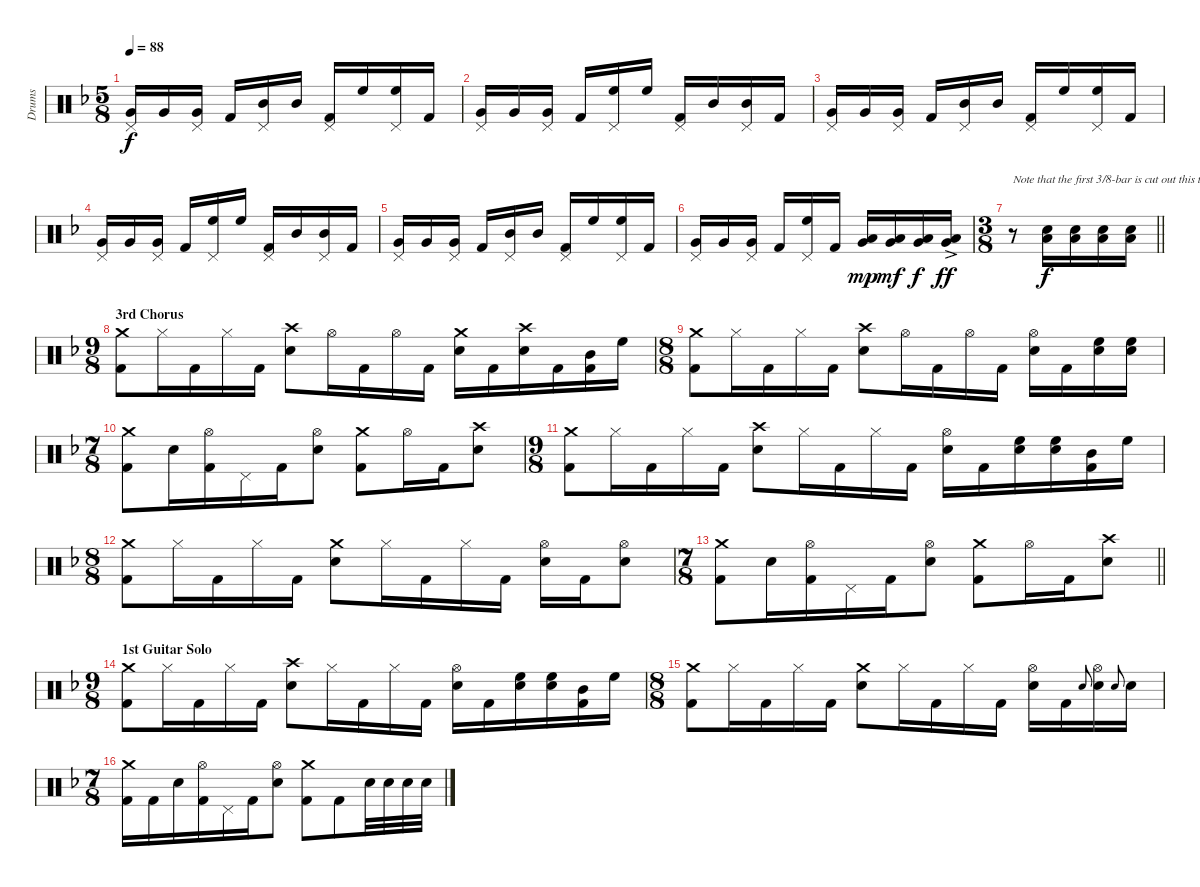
\track ("Drums" "Drums") {instrument percussion}
\staff {score}
\articulation defaults
\ts (5 8)
\tempo 88
\clef neutral
\ks dminor
("Pedal Hi-Hat (hit)" "Very Low Tom (hit)").16{dy f} "Very Low Tom (hit)".16{beam merge} ("Pedal Hi-Hat (hit)" "Very Low Tom (hit)").16{beam split} "Kick (hit) 2".16{beam merge} ("Pedal Hi-Hat (hit)" "Mid Tom (hit)").16 "Mid Tom (hit)".16{beam split} ("Pedal Hi-Hat (hit)" "Kick (hit) 2").16 "High Floor Tom (hit)".16{beam merge} ("Pedal Hi-Hat (hit)" "High Floor Tom (hit)").16 "Kick (hit) 2".16 |
("Pedal Hi-Hat (hit)" "Very Low Tom (hit)").16 "Very Low Tom (hit)".16{beam merge} ("Pedal Hi-Hat (hit)" "Very Low Tom (hit)").16{beam split} "Kick (hit) 2".16{beam merge} ("Pedal Hi-Hat (hit)" "High Floor Tom (hit)").16 "High Floor Tom (hit)".16{beam split} ("Pedal Hi-Hat (hit)" "Kick (hit) 2").16{beam merge} "Mid Tom (hit)".16{beam merge} ("Pedal Hi-Hat (hit)" "Mid Tom (hit)").16 "Kick (hit) 2".16 |
("Pedal Hi-Hat (hit)" "Very Low Tom (hit)").16 "Very Low Tom (hit)".16{beam merge} ("Pedal Hi-Hat (hit)" "Very Low Tom (hit)").16{beam split} "Kick (hit) 2".16{beam merge} ("Pedal Hi-Hat (hit)" "Mid Tom (hit)").16 "Mid Tom (hit)".16{beam split} ("Pedal Hi-Hat (hit)" "Kick (hit) 2").16 "High Floor Tom (hit)".16{beam merge} ("Pedal Hi-Hat (hit)" "High Floor Tom (hit)").16 "Kick (hit) 2".16 |
("Pedal Hi-Hat (hit)" "Very Low Tom (hit)").16 "Very Low Tom (hit)".16{beam merge} ("Pedal Hi-Hat (hit)" "Very Low Tom (hit)").16{beam split} "Kick (hit) 2".16{beam merge} ("Pedal Hi-Hat (hit)" "High Floor Tom (hit)").16 "High Floor Tom (hit)".16{beam split} ("Pedal Hi-Hat (hit)" "Kick (hit) 2").16{beam merge} "Mid Tom (hit)".16{beam merge} ("Pedal Hi-Hat (hit)" "Mid Tom (hit)").16 "Kick (hit) 2".16 |
("Pedal Hi-Hat (hit)" "Very Low Tom (hit)").16 "Very Low Tom (hit)".16{beam merge} ("Pedal Hi-Hat (hit)" "Very Low Tom (hit)").16{beam split} "Kick (hit) 2".16{beam merge} ("Pedal Hi-Hat (hit)" "Mid Tom (hit)").16 "Mid Tom (hit)".16{beam split} ("Pedal Hi-Hat (hit)" "Kick (hit) 2").16 "High Floor Tom (hit)".16{beam merge} ("Pedal Hi-Hat (hit)" "High Floor Tom (hit)").16 "Kick (hit) 2".16 |
("Pedal Hi-Hat (hit)" "Very Low Tom (hit)").16 "Very Low Tom (hit)".16{beam merge} ("Pedal Hi-Hat (hit)" "Very Low Tom (hit)").16{beam split} "Kick (hit) 2".16{beam merge} ("Pedal Hi-Hat (hit)" "High Floor Tom (hit)").16 "Kick (hit) 2".16 ("Low Tom (hit)" "Very Low Tom (hit)").16{dy mp} ("Low Tom (hit)" "Very Low Tom (hit)").16{dy mf beam merge} ("Low Tom (hit)" "Very Low Tom (hit)").16{dy f} ("Low Tom (hit)"{ac} "Very Low Tom (hit)"{ac}).16{dy ff} |
\ts (3 8)
\barLineRight lightlight
r.8{txt "Note that the first 3/8-bar is cut out this time."} ("Low Tom (hit)" "Snare (hit) 2").16{dy f} ("Low Tom (hit)" "Snare (hit) 2").16 ("Low Tom (hit)" "Snare (hit) 2").16 ("Low Tom (hit)" "Snare (hit) 2").16 |
\ts (9 8)
\section ("" "3rd Chorus")
("Crash medium (hit)" "Kick (hit) 2").8 "Hi-Hat (closed)".16 "Kick (hit) 2".16 "Hi-Hat (closed)".16 "Kick (hit) 2".16 ("Crash high (hit)" "Snare (hit) 2").8 "Hi-Hat (open)".16 "Kick (hit) 2".16 "Hi-Hat (open)".16 "Kick (hit) 2".16 ("Crash medium (hit)" "Snare (hit) 2").16 "Kick (hit) 2".16 ("Crash high (hit)" "Snare (hit) 2").16 "Kick (hit) 2".16 ("Mid Tom (hit)" "Kick (hit) 2").16 "High Floor Tom (hit)".16 |
\ts (8 8)
("Crash medium (hit)" "Kick (hit) 2").8{beam merge} "Hi-Hat (closed)".16 "Kick (hit) 2".16{beam merge} "Hi-Hat (closed)".16 "Kick (hit) 2".16 ("Crash high (hit)" "Snare (hit) 2").8{beam merge} "Hi-Hat (open)".16 "Kick (hit) 2".16{beam merge} "Hi-Hat (open)".16 "Kick (hit) 2".16 ("Hi-Hat (open)" "Snare (hit) 2").16 "Kick (hit) 2".16{beam merge} ("High Floor Tom (hit)" "Snare (hit) 2").16 ("High Floor Tom (hit)" "Snare (hit) 2").16 |
\ts (7 8)
("Crash medium (hit)" "Kick (hit) 2").8{beam merge} "Snare (hit) 2".16 ("Hi-Hat (open)" "Kick (hit) 2").16{beam merge} "Pedal Hi-Hat (hit)".16 "Kick (hit) 2".16{beam merge} ("Hi-Hat (open)" "Snare (hit) 2").8{beam split} ("Crash medium (hit)" "Kick (hit) 2").8{beam merge} "Hi-Hat (open)".16 "Kick (hit) 2".16{beam merge} ("Crash high (hit)" "Snare (hit) 2").8 |
\ts (9 8)
("Crash medium (hit)" "Kick (hit) 2").8 "Hi-Hat (closed)".16 "Kick (hit) 2".16 "Hi-Hat (closed)".16 "Kick (hit) 2".16 ("Crash high (hit)" "Snare (hit) 2").8 "Hi-Hat (closed)".16 "Kick (hit) 2".16 "Hi-Hat (closed)".16 "Kick (hit) 2".16 ("Hi-Hat (open)" "Snare (hit) 2").16 "Kick (hit) 2".16 ("High Floor Tom (hit)" "Snare (hit) 2").16 ("High Floor Tom (hit)" "Snare (hit) 2").16 ("Mid Tom (hit)" "Kick (hit) 2").16 "High Floor Tom (hit)".16 |
\ts (8 8)
("Crash medium (hit)" "Kick (hit) 2").8{beam merge} "Hi-Hat (closed)".16 "Kick (hit) 2".16{beam merge} "Hi-Hat (closed)".16 "Kick (hit) 2".16 ("Crash medium (hit)" "Snare (hit) 2").8{beam merge} "Hi-Hat (closed)".16 "Kick (hit) 2".16{beam merge} "Hi-Hat (closed)".16 "Kick (hit) 2".16 ("Hi-Hat (open)" "Snare (hit) 2").16 "Kick (hit) 2".16{beam merge} ("Hi-Hat (open)" "Snare (hit) 2").8 |
\ts (7 8)
\barLineRight lightlight
("Crash medium (hit)" "Kick (hit) 2").8{beam merge} "Snare (hit) 2".16 ("Hi-Hat (open)" "Kick (hit) 2").16{beam merge} "Pedal Hi-Hat (hit)".16 "Kick (hit) 2".16{beam merge} ("Hi-Hat (open)" "Snare (hit) 2").8{beam split} ("Crash medium (hit)" "Kick (hit) 2").8{beam merge} "Hi-Hat (open)".16 "Kick (hit) 2".16{beam merge} ("Crash high (hit)" "Snare (hit) 2").8 |
\ts (9 8)
\section ("" "1st Guitar Solo")
("Crash medium (hit)" "Kick (hit) 2").8 "Hi-Hat (closed)".16 "Kick (hit) 2".16 "Hi-Hat (closed)".16 "Kick (hit) 2".16 ("Crash high (hit)" "Snare (hit) 2").8 "Hi-Hat (closed)".16 "Kick (hit) 2".16 "Hi-Hat (closed)".16 "Kick (hit) 2".16 ("Hi-Hat (open)" "Snare (hit) 2").16 "Kick (hit) 2".16 ("High Floor Tom (hit)" "Snare (hit) 2").16 ("High Floor Tom (hit)" "Snare (hit) 2").16 ("Mid Tom (hit)" "Kick (hit) 2").16 "High Floor Tom (hit)".16 |
\ts (8 8)
("Crash medium (hit)" "Kick (hit) 2").8{beam merge} "Hi-Hat (closed)".16 "Kick (hit) 2".16{beam merge} "Hi-Hat (closed)".16 "Kick (hit) 2".16 ("Crash medium (hit)" "Snare (hit) 2").8{beam merge} "Hi-Hat (closed)".16 "Kick (hit) 2".16{beam merge} "Hi-Hat (closed)".16 "Kick (hit) 2".16 ("Hi-Hat (open)" "Snare (hit) 2").16 "Kick (hit) 2".16 "Snare (hit) 2".8{gr onbeat beam merge} ("Hi-Hat (open)" "Snare (hit) 2").16 "Snare (hit) 2".8{gr onbeat} "Snare (hit) 2".16 |
\ts (7 8)
("Crash medium (hit)" "Kick (hit) 2").16 "Kick (hit) 2".16{beam merge} "Snare (hit) 2".16 ("Hi-Hat (open)" "Kick (hit) 2").16{beam merge} "Pedal Hi-Hat (hit)".16 "Kick (hit) 2".16{beam merge} ("Hi-Hat (open)" "Snare (hit) 2").8{beam split} ("Crash medium (hit)" "Kick (hit) 2").8 "Kick (hit) 2".8{beam merge} "Snare (hit) 2".32 "Snare (hit) 2".32 "Snare (hit) 2".32 "Snare (hit) 2".32
